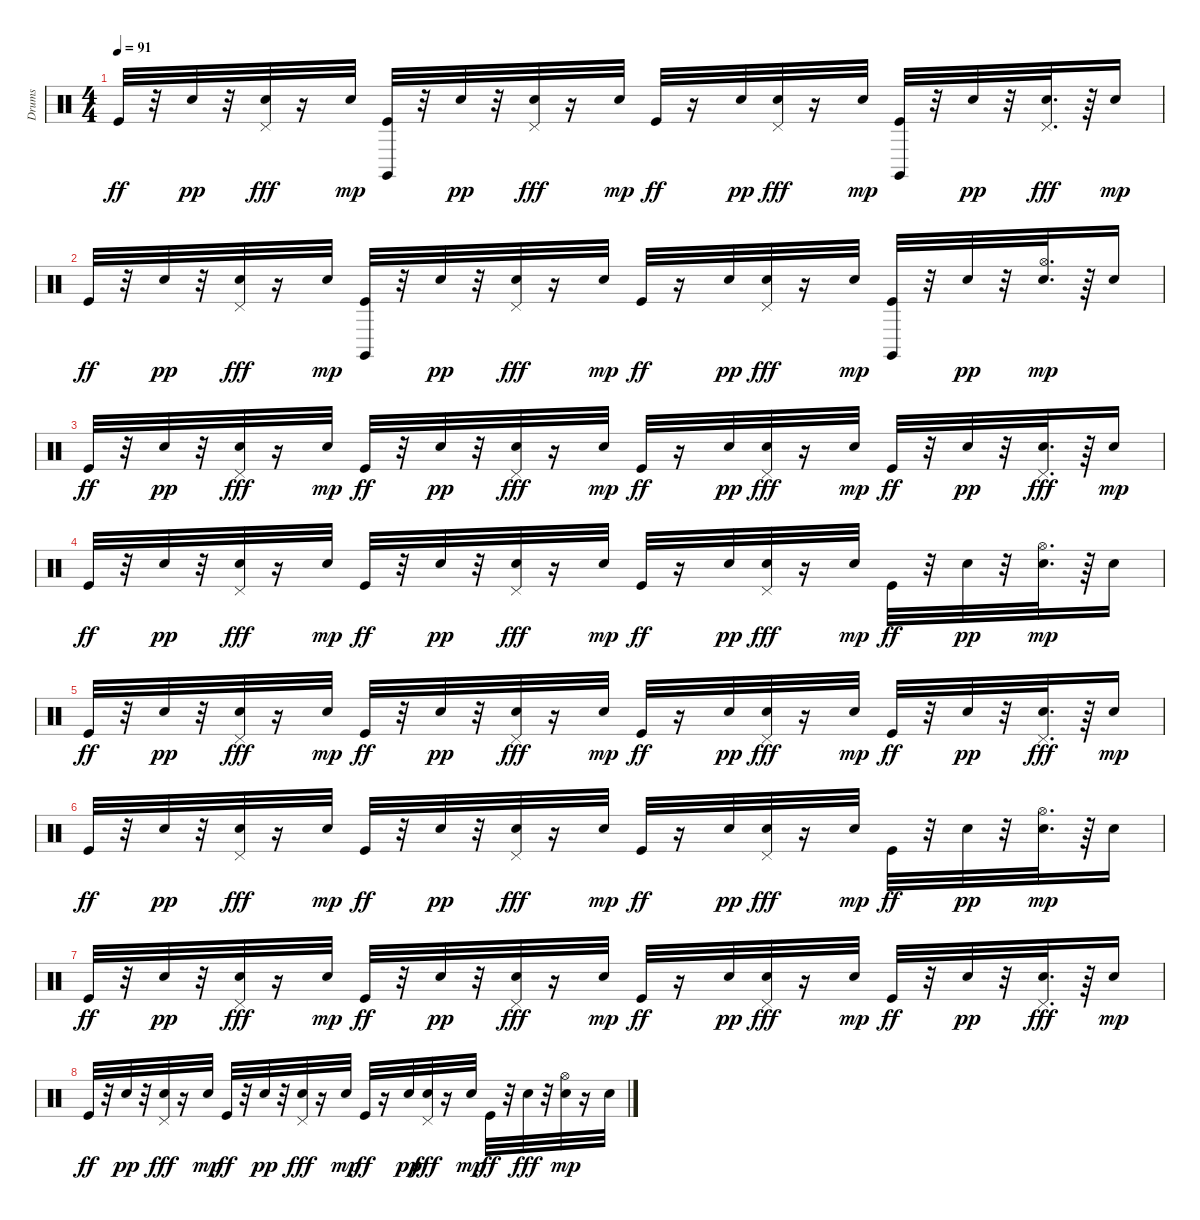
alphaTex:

\track ("Drums" "Drums") {instrument percussion}
\staff {score}
\articulation defaults
\ts (4 4)
\tempo 91
\clef neutral
\ks c "Kick (hit)".32{dy ff}
r.32 "Snare (hit) 2".32{dy pp} r.32 ("Snare (hit) 2" "Pedal Hi-Hat (hit)").32{dy fff} r.16 "Snare (hit) 2".32{dy mp} ("Kick (hit)" "Claves (hit)").32 r.32 "Snare (hit) 2".32{dy pp} r.32 ("Snare (hit) 2" "Pedal Hi-Hat (hit)").32{dy fff} r.16 "Snare (hit) 2".32{dy mp} "Kick (hit)".32{dy ff} r.16 "Snare (hit) 2".32{dy pp} ("Snare (hit) 2" "Pedal Hi-Hat (hit)").32{dy fff} r.16 "Snare (hit) 2".32{dy mp} ("Kick (hit)" "Claves (hit)").32 r.32 "Snare (hit) 2".32{dy pp} r.32 ("Snare (hit) 2" "Pedal Hi-Hat (hit)").32{d dy fff} r.64 "Snare (hit) 2".16{dy mp} |
"Kick (hit)".32{dy ff} r.32 "Snare (hit) 2".32{dy pp} r.32 ("Snare (hit) 2" "Pedal Hi-Hat (hit)").32{dy fff} r.16 "Snare (hit) 2".32{dy mp} ("Kick (hit)" "Claves (hit)").32 r.32 "Snare (hit) 2".32{dy pp} r.32 ("Snare (hit) 2" "Pedal Hi-Hat (hit)").32{dy fff} r.16 "Snare (hit) 2".32{dy mp} "Kick (hit)".32{dy ff} r.16 "Snare (hit) 2".32{dy pp} ("Snare (hit) 2" "Pedal Hi-Hat (hit)").32{dy fff} r.16 "Snare (hit) 2".32{dy mp} ("Kick (hit)" "Claves (hit)").32 r.32 "Snare (hit) 2".32{dy pp} r.32 ("Snare (hit) 2" "Hi-Hat (open)").32{d dy mp} r.64 "Snare (hit) 2".16 |
"Kick (hit)".32{dy ff} r.32 "Snare (hit) 2".32{dy pp} r.32 ("Snare (hit) 2" "Pedal Hi-Hat (hit)").32{dy fff} r.16 "Snare (hit) 2".32{dy mp} "Kick (hit)".32{dy ff} r.32 "Snare (hit) 2".32{dy pp} r.32 ("Snare (hit) 2" "Pedal Hi-Hat (hit)").32{dy fff} r.16 "Snare (hit) 2".32{dy mp} "Kick (hit)".32{dy ff} r.16 "Snare (hit) 2".32{dy pp} ("Snare (hit) 2" "Pedal Hi-Hat (hit)").32{dy fff} r.16 "Snare (hit) 2".32{dy mp} "Kick (hit)".32{dy ff} r.32 "Snare (hit) 2".32{dy pp} r.32 ("Snare (hit) 2" "Pedal Hi-Hat (hit)").32{d dy fff} r.64 "Snare (hit) 2".16{dy mp} |
"Kick (hit)".32{dy ff} r.32 "Snare (hit) 2".32{dy pp} r.32 ("Snare (hit) 2" "Pedal Hi-Hat (hit)").32{dy fff} r.16 "Snare (hit) 2".32{dy mp} "Kick (hit)".32{dy ff} r.32 "Snare (hit) 2".32{dy pp} r.32 ("Snare (hit) 2" "Pedal Hi-Hat (hit)").32{dy fff} r.16 "Snare (hit) 2".32{dy mp} "Kick (hit)".32{dy ff} r.16 "Snare (hit) 2".32{dy pp} ("Snare (hit) 2" "Pedal Hi-Hat (hit)").32{dy fff} r.16 "Snare (hit) 2".32{dy mp} "Kick (hit)".32{dy ff} r.32 "Snare (hit) 2".32{dy pp} r.32 ("Snare (hit) 2" "Hi-Hat (open)").32{d dy mp} r.64 "Snare (hit) 2".16 |
"Kick (hit)".32{dy ff} r.32 "Snare (hit) 2".32{dy pp} r.32 ("Snare (hit) 2" "Pedal Hi-Hat (hit)").32{dy fff} r.16 "Snare (hit) 2".32{dy mp} "Kick (hit)".32{dy ff} r.32 "Snare (hit) 2".32{dy pp} r.32 ("Snare (hit) 2" "Pedal Hi-Hat (hit)").32{dy fff} r.16 "Snare (hit) 2".32{dy mp} "Kick (hit)".32{dy ff} r.16 "Snare (hit) 2".32{dy pp} ("Snare (hit) 2" "Pedal Hi-Hat (hit)").32{dy fff} r.16 "Snare (hit) 2".32{dy mp} "Kick (hit)".32{dy ff} r.32 "Snare (hit) 2".32{dy pp} r.32 ("Snare (hit) 2" "Pedal Hi-Hat (hit)").32{d dy fff} r.64 "Snare (hit) 2".16{dy mp} |
"Kick (hit)".32{dy ff} r.32 "Snare (hit) 2".32{dy pp} r.32 ("Snare (hit) 2" "Pedal Hi-Hat (hit)").32{dy fff} r.16 "Snare (hit) 2".32{dy mp} "Kick (hit)".32{dy ff} r.32 "Snare (hit) 2".32{dy pp} r.32 ("Snare (hit) 2" "Pedal Hi-Hat (hit)").32{dy fff} r.16 "Snare (hit) 2".32{dy mp} "Kick (hit)".32{dy ff} r.16 "Snare (hit) 2".32{dy pp} ("Snare (hit) 2" "Pedal Hi-Hat (hit)").32{dy fff} r.16 "Snare (hit) 2".32{dy mp} "Kick (hit)".32{dy ff} r.32 "Snare (hit) 2".32{dy pp} r.32 ("Snare (hit) 2" "Hi-Hat (open)").32{d dy mp} r.64 "Snare (hit) 2".16 |
"Kick (hit)".32{dy ff} r.32 "Snare (hit) 2".32{dy pp} r.32 ("Snare (hit) 2" "Pedal Hi-Hat (hit)").32{dy fff} r.16 "Snare (hit) 2".32{dy mp} "Kick (hit)".32{dy ff} r.32 "Snare (hit) 2".32{dy pp} r.32 ("Snare (hit) 2" "Pedal Hi-Hat (hit)").32{dy fff} r.16 "Snare (hit) 2".32{dy mp} "Kick (hit)".32{dy ff} r.16 "Snare (hit) 2".32{dy pp} ("Snare (hit) 2" "Pedal Hi-Hat (hit)").32{dy fff} r.16 "Snare (hit) 2".32{dy mp} "Kick (hit)".32{dy ff} r.32 "Snare (hit) 2".32{dy pp} r.32 ("Snare (hit) 2" "Pedal Hi-Hat (hit)").32{d dy fff} r.64 "Snare (hit) 2".16{dy mp} |
"Kick (hit)".32{dy ff} r.32 "Snare (hit) 2".32{dy pp} r.32 ("Snare (hit) 2" "Pedal Hi-Hat (hit)").32{dy fff} r.16 "Snare (hit) 2".32{dy mp} "Kick (hit)".32{dy ff} r.32 "Snare (hit) 2".32{dy pp} r.32 ("Snare (hit) 2" "Pedal Hi-Hat (hit)").32{dy fff} r.16 "Snare (hit) 2".32{dy mp} "Kick (hit)".32{dy ff} r.16 "Snare (hit) 2".32{dy pp} ("Snare (hit) 2" "Pedal Hi-Hat (hit)").32{dy fff} r.16 "Snare (hit) 2".32{dy mp} "Kick (hit)".32{dy ff} r.32 "Snare (hit) 2".32{dy fff} r.32 ("Snare (hit) 2" "Hi-Hat (open)").32{dy mp} r.16 "Snare (hit) 2".32
